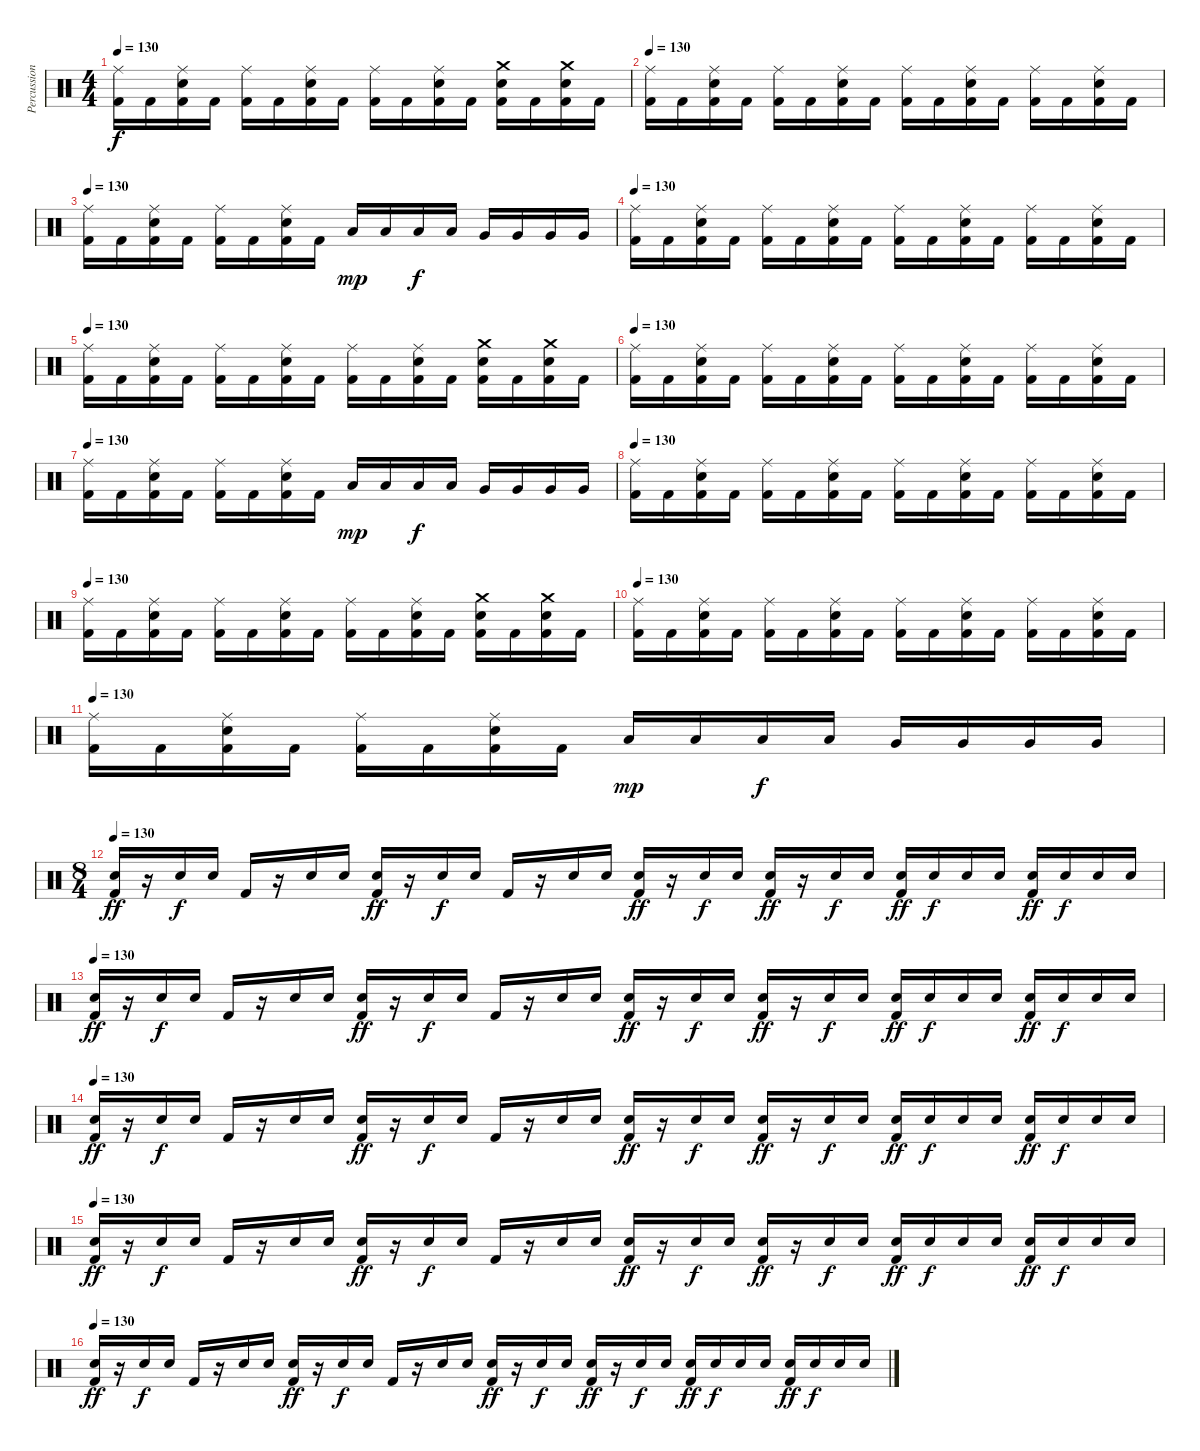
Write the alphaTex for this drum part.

\track ("Percussion" "Percussion") {instrument percussion}
\staff {score}
\articulation defaults
\ts (4 4)
\tempo 130
\clef neutral
\ks c
("Ride (middle)" "Kick (hit) 2").16{dy f} "Kick (hit) 2".16 ("Ride (middle)" "Snare (hit) 2" "Kick (hit) 2").16 "Kick (hit) 2".16 ("Ride (middle)" "Kick (hit) 2").16 "Kick (hit) 2".16 ("Ride (middle)" "Snare (hit) 2" "Kick (hit) 2").16 "Kick (hit) 2".16 ("Ride (middle)" "Kick (hit) 2").16 "Kick (hit) 2".16 ("Ride (middle)" "Snare (hit) 2" "Kick (hit) 2").16 "Kick (hit) 2".16 ("Crash medium (hit)" "Snare (hit) 2" "Kick (hit) 2").16 "Kick (hit) 2".16 ("Crash medium (hit)" "Snare (hit) 2" "Kick (hit) 2").16 "Kick (hit) 2".16 |
\tempo 130
("Ride (middle)" "Kick (hit) 2").16 "Kick (hit) 2".16 ("Ride (middle)" "Snare (hit) 2" "Kick (hit) 2").16 "Kick (hit) 2".16 ("Ride (middle)" "Kick (hit) 2").16 "Kick (hit) 2".16 ("Ride (middle)" "Snare (hit) 2" "Kick (hit) 2").16 "Kick (hit) 2".16 ("Ride (middle)" "Kick (hit) 2").16 "Kick (hit) 2".16 ("Ride (middle)" "Snare (hit) 2" "Kick (hit) 2").16 "Kick (hit) 2".16 ("Ride (middle)" "Kick (hit) 2").16 "Kick (hit) 2".16 ("Ride (middle)" "Snare (hit) 2" "Kick (hit) 2").16 "Kick (hit) 2".16 |
\tempo 130
("Ride (middle)" "Kick (hit) 2").16 "Kick (hit) 2".16 ("Ride (middle)" "Snare (hit) 2" "Kick (hit) 2").16 "Kick (hit) 2".16 ("Ride (middle)" "Kick (hit) 2").16 "Kick (hit) 2".16 ("Ride (middle)" "Snare (hit) 2" "Kick (hit) 2").16 "Kick (hit) 2".16 "Low Tom (hit)".16{dy mp} "Low Tom (hit)".16 "Low Tom (hit)".16{dy f} "Low Tom (hit)".16 "Very Low Tom (hit)".16 "Very Low Tom (hit)".16 "Very Low Tom (hit)".16 "Very Low Tom (hit)".16 |
\tempo 130
("Ride (middle)" "Kick (hit) 2").16 "Kick (hit) 2".16 ("Ride (middle)" "Snare (hit) 2" "Kick (hit) 2").16 "Kick (hit) 2".16 ("Ride (middle)" "Kick (hit) 2").16 "Kick (hit) 2".16 ("Ride (middle)" "Snare (hit) 2" "Kick (hit) 2").16 "Kick (hit) 2".16 ("Ride (middle)" "Kick (hit) 2").16 "Kick (hit) 2".16 ("Ride (middle)" "Snare (hit) 2" "Kick (hit) 2").16 "Kick (hit) 2".16 ("Ride (middle)" "Kick (hit) 2").16 "Kick (hit) 2".16 ("Ride (middle)" "Snare (hit) 2" "Kick (hit) 2").16 "Kick (hit) 2".16 |
\tempo 130
("Ride (middle)" "Kick (hit) 2").16 "Kick (hit) 2".16 ("Ride (middle)" "Snare (hit) 2" "Kick (hit) 2").16 "Kick (hit) 2".16 ("Ride (middle)" "Kick (hit) 2").16 "Kick (hit) 2".16 ("Ride (middle)" "Snare (hit) 2" "Kick (hit) 2").16 "Kick (hit) 2".16 ("Ride (middle)" "Kick (hit) 2").16 "Kick (hit) 2".16 ("Ride (middle)" "Snare (hit) 2" "Kick (hit) 2").16 "Kick (hit) 2".16 ("Crash medium (hit)" "Snare (hit) 2" "Kick (hit) 2").16 "Kick (hit) 2".16 ("Crash medium (hit)" "Snare (hit) 2" "Kick (hit) 2").16 "Kick (hit) 2".16 |
\tempo 130
("Ride (middle)" "Kick (hit) 2").16 "Kick (hit) 2".16 ("Ride (middle)" "Snare (hit) 2" "Kick (hit) 2").16 "Kick (hit) 2".16 ("Ride (middle)" "Kick (hit) 2").16 "Kick (hit) 2".16 ("Ride (middle)" "Snare (hit) 2" "Kick (hit) 2").16 "Kick (hit) 2".16 ("Ride (middle)" "Kick (hit) 2").16 "Kick (hit) 2".16 ("Ride (middle)" "Snare (hit) 2" "Kick (hit) 2").16 "Kick (hit) 2".16 ("Ride (middle)" "Kick (hit) 2").16 "Kick (hit) 2".16 ("Ride (middle)" "Snare (hit) 2" "Kick (hit) 2").16 "Kick (hit) 2".16 |
\tempo 130
("Ride (middle)" "Kick (hit) 2").16 "Kick (hit) 2".16 ("Ride (middle)" "Snare (hit) 2" "Kick (hit) 2").16 "Kick (hit) 2".16 ("Ride (middle)" "Kick (hit) 2").16 "Kick (hit) 2".16 ("Ride (middle)" "Snare (hit) 2" "Kick (hit) 2").16 "Kick (hit) 2".16 "Low Tom (hit)".16{dy mp} "Low Tom (hit)".16 "Low Tom (hit)".16{dy f} "Low Tom (hit)".16 "Very Low Tom (hit)".16 "Very Low Tom (hit)".16 "Very Low Tom (hit)".16 "Very Low Tom (hit)".16 |
\tempo 130
("Ride (middle)" "Kick (hit) 2").16 "Kick (hit) 2".16 ("Ride (middle)" "Snare (hit) 2" "Kick (hit) 2").16 "Kick (hit) 2".16 ("Ride (middle)" "Kick (hit) 2").16 "Kick (hit) 2".16 ("Ride (middle)" "Snare (hit) 2" "Kick (hit) 2").16 "Kick (hit) 2".16 ("Ride (middle)" "Kick (hit) 2").16 "Kick (hit) 2".16 ("Ride (middle)" "Snare (hit) 2" "Kick (hit) 2").16 "Kick (hit) 2".16 ("Ride (middle)" "Kick (hit) 2").16 "Kick (hit) 2".16 ("Ride (middle)" "Snare (hit) 2" "Kick (hit) 2").16 "Kick (hit) 2".16 |
\tempo 130
("Ride (middle)" "Kick (hit) 2").16 "Kick (hit) 2".16 ("Ride (middle)" "Snare (hit) 2" "Kick (hit) 2").16 "Kick (hit) 2".16 ("Ride (middle)" "Kick (hit) 2").16 "Kick (hit) 2".16 ("Ride (middle)" "Snare (hit) 2" "Kick (hit) 2").16 "Kick (hit) 2".16 ("Ride (middle)" "Kick (hit) 2").16 "Kick (hit) 2".16 ("Ride (middle)" "Snare (hit) 2" "Kick (hit) 2").16 "Kick (hit) 2".16 ("Crash medium (hit)" "Snare (hit) 2" "Kick (hit) 2").16 "Kick (hit) 2".16 ("Crash medium (hit)" "Snare (hit) 2" "Kick (hit) 2").16 "Kick (hit) 2".16 |
\tempo 130
("Ride (middle)" "Kick (hit) 2").16 "Kick (hit) 2".16 ("Ride (middle)" "Snare (hit) 2" "Kick (hit) 2").16 "Kick (hit) 2".16 ("Ride (middle)" "Kick (hit) 2").16 "Kick (hit) 2".16 ("Ride (middle)" "Snare (hit) 2" "Kick (hit) 2").16 "Kick (hit) 2".16 ("Ride (middle)" "Kick (hit) 2").16 "Kick (hit) 2".16 ("Ride (middle)" "Snare (hit) 2" "Kick (hit) 2").16 "Kick (hit) 2".16 ("Ride (middle)" "Kick (hit) 2").16 "Kick (hit) 2".16 ("Ride (middle)" "Snare (hit) 2" "Kick (hit) 2").16 "Kick (hit) 2".16 |
\tempo 130
("Ride (middle)" "Kick (hit) 2").16 "Kick (hit) 2".16 ("Ride (middle)" "Snare (hit) 2" "Kick (hit) 2").16 "Kick (hit) 2".16 ("Ride (middle)" "Kick (hit) 2").16 "Kick (hit) 2".16 ("Ride (middle)" "Snare (hit) 2" "Kick (hit) 2").16 "Kick (hit) 2".16 "Low Tom (hit)".16{dy mp} "Low Tom (hit)".16 "Low Tom (hit)".16{dy f} "Low Tom (hit)".16 "Very Low Tom (hit)".16 "Very Low Tom (hit)".16 "Very Low Tom (hit)".16 "Very Low Tom (hit)".16 |
\ts (8 4)
\tempo 130
("Snare (hit) 2" "Kick (hit) 2").16{dy ff} r.16 "Snare (hit) 2".16{dy f} "Snare (hit) 2".16 "Kick (hit) 2".16 r.16 "Snare (hit) 2".16 "Snare (hit) 2".16 ("Snare (hit) 2" "Kick (hit) 2").16{dy ff} r.16 "Snare (hit) 2".16{dy f} "Snare (hit) 2".16 "Kick (hit) 2".16 r.16 "Snare (hit) 2".16 "Snare (hit) 2".16 ("Snare (hit) 2" "Kick (hit) 2").16{dy ff} r.16 "Snare (hit) 2".16{dy f} "Snare (hit) 2".16 ("Snare (hit) 2" "Kick (hit) 2").16{dy ff} r.16 "Snare (hit) 2".16{dy f} "Snare (hit) 2".16 ("Snare (hit) 2" "Kick (hit) 2").16{dy ff} "Snare (hit) 2".16{dy f} "Snare (hit) 2".16 "Snare (hit) 2".16 ("Snare (hit) 2" "Kick (hit) 2").16{dy ff} "Snare (hit) 2".16{dy f} "Snare (hit) 2".16 "Snare (hit) 2".16 |
\tempo 130
("Snare (hit) 2" "Kick (hit) 2").16{dy ff} r.16 "Snare (hit) 2".16{dy f} "Snare (hit) 2".16 "Kick (hit) 2".16 r.16 "Snare (hit) 2".16 "Snare (hit) 2".16 ("Snare (hit) 2" "Kick (hit) 2").16{dy ff} r.16 "Snare (hit) 2".16{dy f} "Snare (hit) 2".16 "Kick (hit) 2".16 r.16 "Snare (hit) 2".16 "Snare (hit) 2".16 ("Snare (hit) 2" "Kick (hit) 2").16{dy ff} r.16 "Snare (hit) 2".16{dy f} "Snare (hit) 2".16 ("Snare (hit) 2" "Kick (hit) 2").16{dy ff} r.16 "Snare (hit) 2".16{dy f} "Snare (hit) 2".16 ("Snare (hit) 2" "Kick (hit) 2").16{dy ff} "Snare (hit) 2".16{dy f} "Snare (hit) 2".16 "Snare (hit) 2".16 ("Snare (hit) 2" "Kick (hit) 2").16{dy ff} "Snare (hit) 2".16{dy f} "Snare (hit) 2".16 "Snare (hit) 2".16 |
\tempo 130
("Snare (hit) 2" "Kick (hit) 2").16{dy ff} r.16 "Snare (hit) 2".16{dy f} "Snare (hit) 2".16 "Kick (hit) 2".16 r.16 "Snare (hit) 2".16 "Snare (hit) 2".16 ("Snare (hit) 2" "Kick (hit) 2").16{dy ff} r.16 "Snare (hit) 2".16{dy f} "Snare (hit) 2".16 "Kick (hit) 2".16 r.16 "Snare (hit) 2".16 "Snare (hit) 2".16 ("Snare (hit) 2" "Kick (hit) 2").16{dy ff} r.16 "Snare (hit) 2".16{dy f} "Snare (hit) 2".16 ("Snare (hit) 2" "Kick (hit) 2").16{dy ff} r.16 "Snare (hit) 2".16{dy f} "Snare (hit) 2".16 ("Snare (hit) 2" "Kick (hit) 2").16{dy ff} "Snare (hit) 2".16{dy f} "Snare (hit) 2".16 "Snare (hit) 2".16 ("Snare (hit) 2" "Kick (hit) 2").16{dy ff} "Snare (hit) 2".16{dy f} "Snare (hit) 2".16 "Snare (hit) 2".16 |
\tempo 130
("Snare (hit) 2" "Kick (hit) 2").16{dy ff} r.16 "Snare (hit) 2".16{dy f} "Snare (hit) 2".16 "Kick (hit) 2".16 r.16 "Snare (hit) 2".16 "Snare (hit) 2".16 ("Snare (hit) 2" "Kick (hit) 2").16{dy ff} r.16 "Snare (hit) 2".16{dy f} "Snare (hit) 2".16 "Kick (hit) 2".16 r.16 "Snare (hit) 2".16 "Snare (hit) 2".16 ("Snare (hit) 2" "Kick (hit) 2").16{dy ff} r.16 "Snare (hit) 2".16{dy f} "Snare (hit) 2".16 ("Snare (hit) 2" "Kick (hit) 2").16{dy ff} r.16 "Snare (hit) 2".16{dy f} "Snare (hit) 2".16 ("Snare (hit) 2" "Kick (hit) 2").16{dy ff} "Snare (hit) 2".16{dy f} "Snare (hit) 2".16 "Snare (hit) 2".16 ("Snare (hit) 2" "Kick (hit) 2").16{dy ff} "Snare (hit) 2".16{dy f} "Snare (hit) 2".16 "Snare (hit) 2".16 |
\tempo 130
("Snare (hit) 2" "Kick (hit) 2").16{dy ff} r.16 "Snare (hit) 2".16{dy f} "Snare (hit) 2".16 "Kick (hit) 2".16 r.16 "Snare (hit) 2".16 "Snare (hit) 2".16 ("Snare (hit) 2" "Kick (hit) 2").16{dy ff} r.16 "Snare (hit) 2".16{dy f} "Snare (hit) 2".16 "Kick (hit) 2".16 r.16 "Snare (hit) 2".16 "Snare (hit) 2".16 ("Snare (hit) 2" "Kick (hit) 2").16{dy ff} r.16 "Snare (hit) 2".16{dy f} "Snare (hit) 2".16 ("Snare (hit) 2" "Kick (hit) 2").16{dy ff} r.16 "Snare (hit) 2".16{dy f} "Snare (hit) 2".16 ("Snare (hit) 2" "Kick (hit) 2").16{dy ff} "Snare (hit) 2".16{dy f} "Snare (hit) 2".16 "Snare (hit) 2".16 ("Snare (hit) 2" "Kick (hit) 2").16{dy ff} "Snare (hit) 2".16{dy f} "Snare (hit) 2".16 "Snare (hit) 2".16
